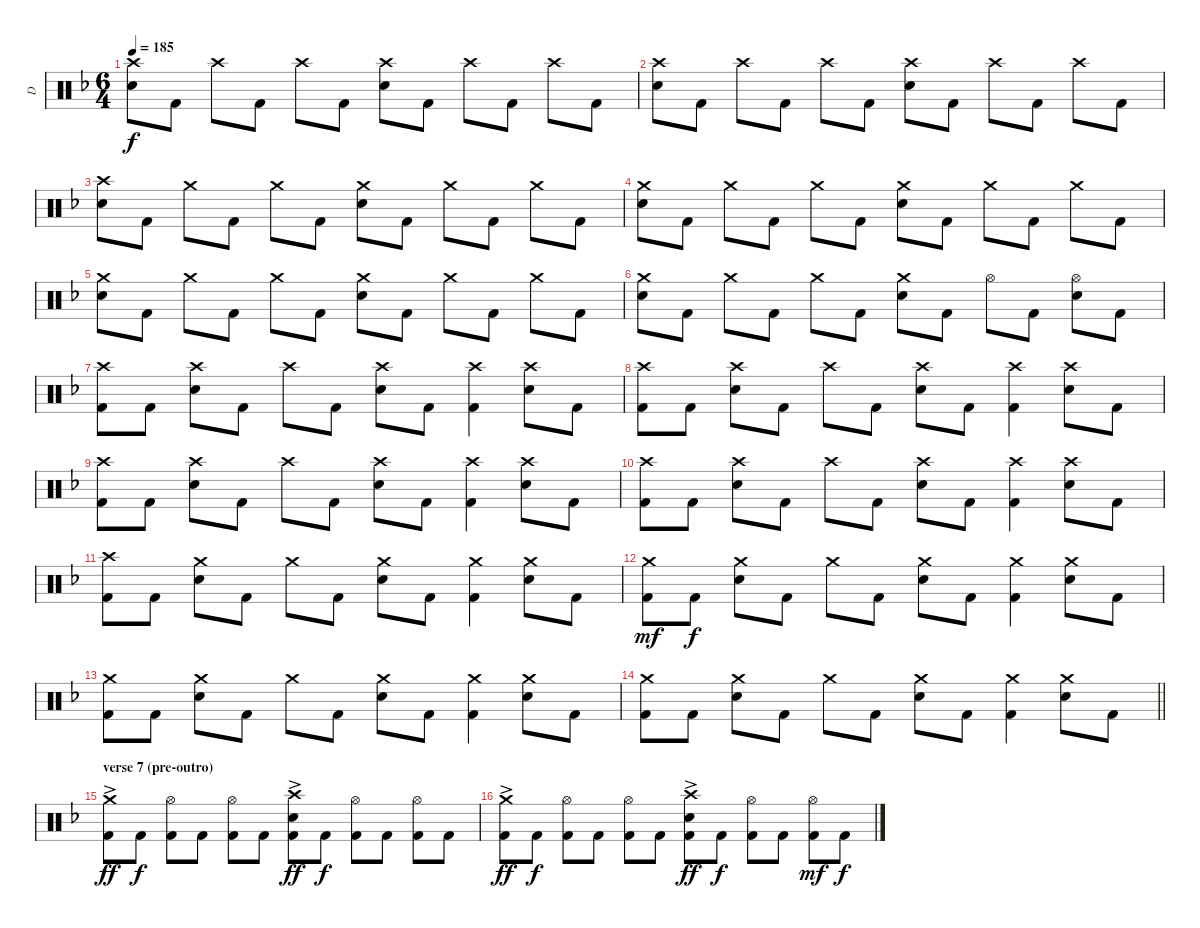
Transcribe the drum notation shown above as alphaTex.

\track ("D" "D") {instrument percussion}
\staff {score}
\articulation defaults
\ts (6 4)
\tempo 185
\clef neutral
\ks dminor
("Crash high (hit)" "Snare (hit) 2").8{dy f} "Kick (hit) 2".8 "Crash high (hit)".8 "Kick (hit) 2".8 "Crash high (hit)".8 "Kick (hit) 2".8 ("Crash high (hit)" "Snare (hit) 2").8 "Kick (hit) 2".8 "Crash high (hit)".8 "Kick (hit) 2".8 "Crash high (hit)".8 "Kick (hit) 2".8 |
("Crash high (hit)" "Snare (hit) 2").8 "Kick (hit) 2".8 "Crash high (hit)".8 "Kick (hit) 2".8 "Crash high (hit)".8 "Kick (hit) 2".8 ("Crash high (hit)" "Snare (hit) 2").8 "Kick (hit) 2".8 "Crash high (hit)".8 "Kick (hit) 2".8 "Crash high (hit)".8 "Kick (hit) 2".8 |
("Crash high (hit)" "Snare (hit) 2").8 "Kick (hit) 2".8 "Crash medium (hit)".8 "Kick (hit) 2".8 "Crash medium (hit)".8 "Kick (hit) 2".8 ("Crash medium (hit)" "Snare (hit) 2").8 "Kick (hit) 2".8 "Crash medium (hit)".8 "Kick (hit) 2".8 "Crash medium (hit)".8 "Kick (hit) 2".8 |
("Crash medium (hit)" "Snare (hit) 2").8 "Kick (hit) 2".8 "Crash medium (hit)".8 "Kick (hit) 2".8 "Crash medium (hit)".8 "Kick (hit) 2".8 ("Crash medium (hit)" "Snare (hit) 2").8 "Kick (hit) 2".8 "Crash medium (hit)".8 "Kick (hit) 2".8 "Crash medium (hit)".8 "Kick (hit) 2".8 |
("Crash medium (hit)" "Snare (hit) 2").8 "Kick (hit) 2".8 "Crash medium (hit)".8 "Kick (hit) 2".8 "Crash medium (hit)".8 "Kick (hit) 2".8 ("Crash medium (hit)" "Snare (hit) 2").8 "Kick (hit) 2".8 "Crash medium (hit)".8 "Kick (hit) 2".8 "Crash medium (hit)".8 "Kick (hit) 2".8 |
("Crash medium (hit)" "Snare (hit) 2").8 "Kick (hit) 2".8 "Crash medium (hit)".8 "Kick (hit) 2".8 "Crash medium (hit)".8 "Kick (hit) 2".8 ("Crash medium (hit)" "Snare (hit) 2").8 "Kick (hit) 2".8 "Hi-Hat (open)".8 "Kick (hit) 2".8 ("Hi-Hat (open)" "Snare (hit) 2").8 "Kick (hit) 2".8 |
("Crash high (hit)" "Kick (hit) 2").8 "Kick (hit) 2".8 ("Crash high (hit)" "Snare (hit) 2").8 "Kick (hit) 2".8 "Crash high (hit)".8 "Kick (hit) 2".8 ("Crash high (hit)" "Snare (hit) 2").8 "Kick (hit) 2".8 ("Crash high (hit)" "Kick (hit) 2").4 ("Crash high (hit)" "Snare (hit) 2").8 "Kick (hit) 2".8 |
("Crash high (hit)" "Kick (hit) 2").8 "Kick (hit) 2".8 ("Crash high (hit)" "Snare (hit) 2").8 "Kick (hit) 2".8 "Crash high (hit)".8 "Kick (hit) 2".8 ("Crash high (hit)" "Snare (hit) 2").8 "Kick (hit) 2".8 ("Crash high (hit)" "Kick (hit) 2").4 ("Crash high (hit)" "Snare (hit) 2").8 "Kick (hit) 2".8 |
("Crash high (hit)" "Kick (hit) 2").8 "Kick (hit) 2".8 ("Crash high (hit)" "Snare (hit) 2").8 "Kick (hit) 2".8 "Crash high (hit)".8 "Kick (hit) 2".8 ("Crash high (hit)" "Snare (hit) 2").8 "Kick (hit) 2".8 ("Crash high (hit)" "Kick (hit) 2").4 ("Crash high (hit)" "Snare (hit) 2").8 "Kick (hit) 2".8 |
("Crash high (hit)" "Kick (hit) 2").8 "Kick (hit) 2".8 ("Crash high (hit)" "Snare (hit) 2").8 "Kick (hit) 2".8 "Crash high (hit)".8 "Kick (hit) 2".8 ("Crash high (hit)" "Snare (hit) 2").8 "Kick (hit) 2".8 ("Crash high (hit)" "Kick (hit) 2").4 ("Crash high (hit)" "Snare (hit) 2").8 "Kick (hit) 2".8 |
("Crash high (hit)" "Kick (hit) 2").8 "Kick (hit) 2".8 ("Crash medium (hit)" "Snare (hit) 2").8 "Kick (hit) 2".8 "Crash medium (hit)".8 "Kick (hit) 2".8 ("Crash medium (hit)" "Snare (hit) 2").8 "Kick (hit) 2".8 ("Crash medium (hit)" "Kick (hit) 2").4 ("Crash medium (hit)" "Snare (hit) 2").8 "Kick (hit) 2".8 |
("Crash medium (hit)" "Kick (hit) 2").8{dy mf} "Kick (hit) 2".8{dy f} ("Crash medium (hit)" "Snare (hit) 2").8 "Kick (hit) 2".8 "Crash medium (hit)".8 "Kick (hit) 2".8 ("Crash medium (hit)" "Snare (hit) 2").8 "Kick (hit) 2".8 ("Crash medium (hit)" "Kick (hit) 2").4 ("Crash medium (hit)" "Snare (hit) 2").8 "Kick (hit) 2".8 |
("Crash medium (hit)" "Kick (hit) 2").8 "Kick (hit) 2".8 ("Crash medium (hit)" "Snare (hit) 2").8 "Kick (hit) 2".8 "Crash medium (hit)".8 "Kick (hit) 2".8 ("Crash medium (hit)" "Snare (hit) 2").8 "Kick (hit) 2".8 ("Crash medium (hit)" "Kick (hit) 2").4 ("Crash medium (hit)" "Snare (hit) 2").8 "Kick (hit) 2".8 |
\barLineRight lightlight
("Crash medium (hit)" "Kick (hit) 2").8 "Kick (hit) 2".8 ("Crash medium (hit)" "Snare (hit) 2").8 "Kick (hit) 2".8 "Crash medium (hit)".8 "Kick (hit) 2".8 ("Crash medium (hit)" "Snare (hit) 2").8 "Kick (hit) 2".8 ("Crash medium (hit)" "Kick (hit) 2").4 ("Crash medium (hit)" "Snare (hit) 2").8 "Kick (hit) 2".8 |
\section ("" "verse 7 (pre-outro)")
("Crash medium (hit)"{ac} "Kick (hit) 2").8{dy ff} "Kick (hit) 2".8{dy f} ("Hi-Hat (open)" "Kick (hit) 2").8 "Kick (hit) 2".8 ("Hi-Hat (open)" "Kick (hit) 2").8 "Kick (hit) 2".8 ("Crash high (hit)"{ac} "Snare (hit) 2" "Kick (hit) 2").8{dy ff} "Kick (hit) 2".8{dy f} ("Hi-Hat (open)" "Kick (hit) 2").8 "Kick (hit) 2".8 ("Hi-Hat (open)" "Kick (hit) 2").8 "Kick (hit) 2".8 |
("Crash medium (hit)"{ac} "Kick (hit) 2").8{dy ff} "Kick (hit) 2".8{dy f} ("Hi-Hat (open)" "Kick (hit) 2").8 "Kick (hit) 2".8 ("Hi-Hat (open)" "Kick (hit) 2").8 "Kick (hit) 2".8 ("Crash high (hit)"{ac} "Snare (hit) 2" "Kick (hit) 2").8{dy ff} "Kick (hit) 2".8{dy f} ("Hi-Hat (open)" "Kick (hit) 2").8 "Kick (hit) 2".8 ("Hi-Hat (open)" "Kick (hit) 2").8{dy mf} "Kick (hit) 2".8{dy f}
